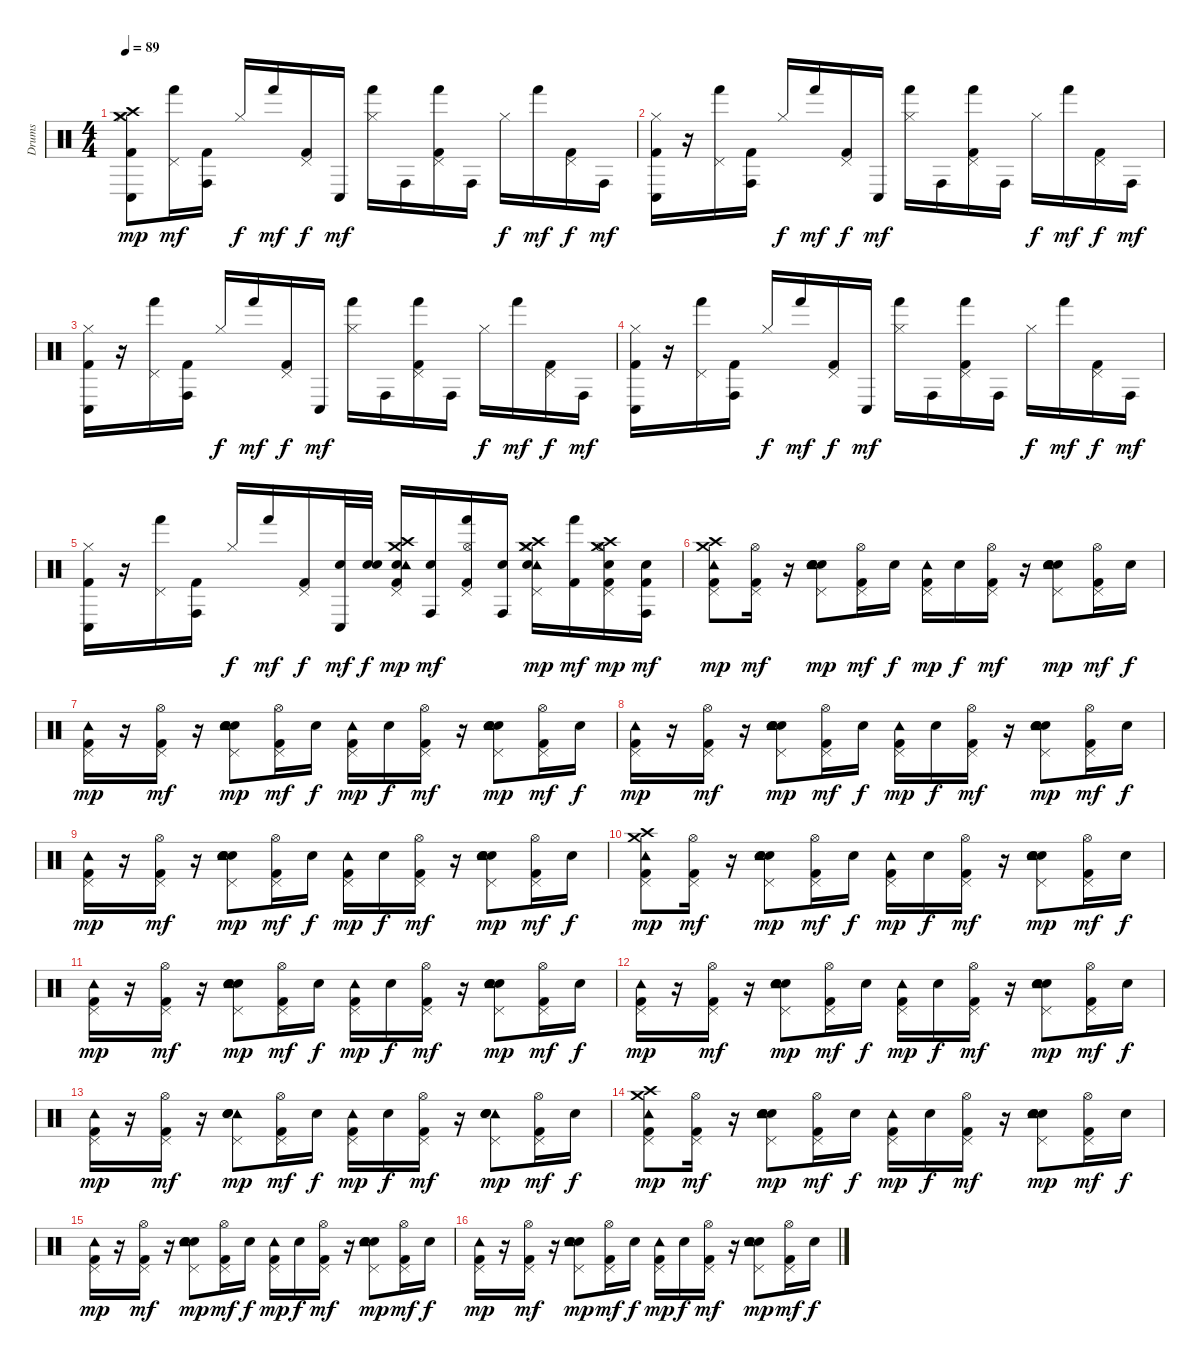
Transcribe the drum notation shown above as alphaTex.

\track ("Drums" "Drums") {instrument percussion}
\staff {score}
\articulation defaults
\ts (4 4)
\tempo 89
\clef neutral
\ks c
("Hi-Hat (closed)" "Conga low (hit)" "Kick (hit) 2" "Crash high (hit)" "Crash medium (hit)").8{dy mp} ("Hand (hit)" "Pedal Hi-Hat (hit)").16{dy mf} ("Conga high (hit)" "Kick (hit) 2").16 "Hi-Hat (closed)".16{dy f} "Hand (hit)".16{dy mf} ("Pedal Hi-Hat (hit)" "Kick (hit) 2").16{dy f} "Conga low (hit)".16{dy mf} ("Hi-Hat (closed)" "Hand (hit)").16 "Conga high (hit)".16 ("Kick (hit) 2" "Hand (hit)" "Pedal Hi-Hat (hit)").16 "Conga high (hit)".16 "Hi-Hat (closed)".16{dy f} "Hand (hit)".16{dy mf} ("Pedal Hi-Hat (hit)" "Kick (hit) 2").16{dy f} "Conga high (hit)".16{dy mf} |
("Hi-Hat (closed)" "Conga low (hit)" "Kick (hit) 2").16 r.16 ("Hand (hit)" "Pedal Hi-Hat (hit)").16 ("Conga high (hit)" "Kick (hit) 2").16 "Hi-Hat (closed)".16{dy f} "Hand (hit)".16{dy mf} ("Pedal Hi-Hat (hit)" "Kick (hit) 2").16{dy f} "Conga low (hit)".16{dy mf} ("Hi-Hat (closed)" "Hand (hit)").16 "Conga high (hit)".16 ("Kick (hit) 2" "Hand (hit)" "Pedal Hi-Hat (hit)").16 "Conga high (hit)".16 "Hi-Hat (closed)".16{dy f} "Hand (hit)".16{dy mf} ("Pedal Hi-Hat (hit)" "Kick (hit) 2").16{dy f} "Conga high (hit)".16{dy mf} |
("Hi-Hat (closed)" "Conga low (hit)" "Kick (hit) 2").16 r.16 ("Hand (hit)" "Pedal Hi-Hat (hit)").16 ("Conga high (hit)" "Kick (hit) 2").16 "Hi-Hat (closed)".16{dy f} "Hand (hit)".16{dy mf} ("Pedal Hi-Hat (hit)" "Kick (hit) 2").16{dy f} "Conga low (hit)".16{dy mf} ("Hi-Hat (closed)" "Hand (hit)").16 "Conga high (hit)".16 ("Kick (hit) 2" "Hand (hit)" "Pedal Hi-Hat (hit)").16 "Conga high (hit)".16 "Hi-Hat (closed)".16{dy f} "Hand (hit)".16{dy mf} ("Pedal Hi-Hat (hit)" "Kick (hit) 2").16{dy f} "Conga high (hit)".16{dy mf} |
("Hi-Hat (closed)" "Conga low (hit)" "Kick (hit) 2").16 r.16 ("Hand (hit)" "Pedal Hi-Hat (hit)").16 ("Conga high (hit)" "Kick (hit) 2").16 "Hi-Hat (closed)".16{dy f} "Hand (hit)".16{dy mf} ("Pedal Hi-Hat (hit)" "Kick (hit) 2").16{dy f} "Conga low (hit)".16{dy mf} ("Hi-Hat (closed)" "Hand (hit)").16 "Conga high (hit)".16 ("Kick (hit) 2" "Hand (hit)" "Pedal Hi-Hat (hit)").16 "Conga high (hit)".16 "Hi-Hat (closed)".16{dy f} "Hand (hit)".16{dy mf} ("Pedal Hi-Hat (hit)" "Kick (hit) 2").16{dy f} "Conga high (hit)".16{dy mf} |
("Hi-Hat (closed)" "Conga low (hit)" "Kick (hit) 2").16 r.16 ("Hand (hit)" "Pedal Hi-Hat (hit)").16 ("Conga high (hit)" "Kick (hit) 2").16 "Hi-Hat (closed)".16{dy f} "Hand (hit)".16{dy mf} ("Pedal Hi-Hat (hit)" "Kick (hit) 2").16{dy f} ("Electric Snare (hit)" "Conga low (hit)").32{dy mf} ("Electric Snare (hit)" "Electric Snare (hit)").32{dy f} ("Kick (hit) 2" "Crash high (hit)" "Crash medium (hit)" "Electric Snare (hit)" "Tambourine (hit)" "Pedal Hi-Hat (hit)").16{dy mp} ("Electric Snare (hit)" "Conga high (hit)").16{dy mf} ("Kick (hit) 2" "Hi-Hat (open)" "Pedal Hi-Hat (hit)" "Hand (hit)").16 ("Electric Snare (hit)" "Conga high (hit)").16 ("Crash high (hit)" "Crash medium (hit)" "Tambourine (hit)" "Pedal Hi-Hat (hit)" "Electric Snare (hit)" "Hi-Hat (closed)").16{dy mp} ("Kick (hit) 2" "Hand (hit)").16{dy mf} ("Kick (hit) 2" "Hi-Hat (open)" "Pedal Hi-Hat (hit)" "Crash high (hit)" "Crash medium (hit)" "Electric Snare (hit)").16{dy mp} ("Kick (hit) 2" "Electric Snare (hit)" "Conga high (hit)").16{dy mf} |
("Kick (hit) 2" "Tambourine (hit)" "Crash high (hit)" "Crash medium (hit)" "Pedal Hi-Hat (hit)").8{dy mp} ("Kick (hit) 2" "Hi-Hat (open)" "Pedal Hi-Hat (hit)").16{dy mf} r.16 ("Electric Snare (hit)" "Snare (hit) 2" "Hand Clap (hit)" "Tambourine (hit)" "Pedal Hi-Hat (hit)").8{dy mp} ("Kick (hit) 2" "Hi-Hat (open)" "Pedal Hi-Hat (hit)").16{dy mf} "Snare (hit) 2".16{dy f} ("Kick (hit) 2" "Tambourine (hit)" "Pedal Hi-Hat (hit)").16{dy mp} "Snare (hit) 2".16{dy f} ("Kick (hit) 2" "Hi-Hat (open)" "Pedal Hi-Hat (hit)").16{dy mf} r.16 ("Electric Snare (hit)" "Snare (hit) 2" "Hand Clap (hit)" "Tambourine (hit)" "Pedal Hi-Hat (hit)").8{dy mp} ("Kick (hit) 2" "Hi-Hat (open)" "Pedal Hi-Hat (hit)").16{dy mf} "Snare (hit) 2".16{dy f} |
("Kick (hit) 2" "Tambourine (hit)" "Pedal Hi-Hat (hit)").16{dy mp} r.16 ("Kick (hit) 2" "Hi-Hat (open)" "Pedal Hi-Hat (hit)").16{dy mf} r.16 ("Electric Snare (hit)" "Hand Clap (hit)" "Snare (hit) 2" "Tambourine (hit)" "Pedal Hi-Hat (hit)").8{dy mp} ("Kick (hit) 2" "Hi-Hat (open)" "Pedal Hi-Hat (hit)").16{dy mf} "Snare (hit) 2".16{dy f} ("Kick (hit) 2" "Tambourine (hit)" "Pedal Hi-Hat (hit)").16{dy mp} "Snare (hit) 2".16{dy f} ("Kick (hit) 2" "Hi-Hat (open)" "Pedal Hi-Hat (hit)").16{dy mf} r.16 ("Electric Snare (hit)" "Hand Clap (hit)" "Snare (hit) 2" "Tambourine (hit)" "Pedal Hi-Hat (hit)").8{dy mp} ("Kick (hit) 2" "Hi-Hat (open)" "Pedal Hi-Hat (hit)").16{dy mf} "Snare (hit) 2".16{dy f} |
("Kick (hit) 2" "Tambourine (hit)" "Pedal Hi-Hat (hit)").16{dy mp} r.16 ("Kick (hit) 2" "Hi-Hat (open)" "Pedal Hi-Hat (hit)").16{dy mf} r.16 ("Electric Snare (hit)" "Hand Clap (hit)" "Snare (hit) 2" "Tambourine (hit)" "Pedal Hi-Hat (hit)").8{dy mp} ("Kick (hit) 2" "Hi-Hat (open)" "Pedal Hi-Hat (hit)").16{dy mf} "Snare (hit) 2".16{dy f} ("Kick (hit) 2" "Tambourine (hit)" "Pedal Hi-Hat (hit)").16{dy mp} "Snare (hit) 2".16{dy f} ("Kick (hit) 2" "Hi-Hat (open)" "Pedal Hi-Hat (hit)").16{dy mf} r.16 ("Electric Snare (hit)" "Hand Clap (hit)" "Snare (hit) 2" "Tambourine (hit)" "Pedal Hi-Hat (hit)").8{dy mp} ("Kick (hit) 2" "Hi-Hat (open)" "Pedal Hi-Hat (hit)").16{dy mf} "Snare (hit) 2".16{dy f} |
("Kick (hit) 2" "Tambourine (hit)" "Pedal Hi-Hat (hit)").16{dy mp} r.16 ("Kick (hit) 2" "Hi-Hat (open)" "Pedal Hi-Hat (hit)").16{dy mf} r.16 ("Electric Snare (hit)" "Hand Clap (hit)" "Snare (hit) 2" "Tambourine (hit)" "Pedal Hi-Hat (hit)").8{dy mp} ("Kick (hit) 2" "Hi-Hat (open)" "Pedal Hi-Hat (hit)").16{dy mf} "Snare (hit) 2".16{dy f} ("Kick (hit) 2" "Tambourine (hit)" "Pedal Hi-Hat (hit)").16{dy mp} "Snare (hit) 2".16{dy f} ("Kick (hit) 2" "Hi-Hat (open)" "Pedal Hi-Hat (hit)").16{dy mf} r.16 ("Electric Snare (hit)" "Hand Clap (hit)" "Snare (hit) 2" "Tambourine (hit)" "Pedal Hi-Hat (hit)").8{dy mp} ("Kick (hit) 2" "Hi-Hat (open)" "Pedal Hi-Hat (hit)").16{dy mf} "Snare (hit) 2".16{dy f} |
("Kick (hit) 2" "Tambourine (hit)" "Crash high (hit)" "Crash medium (hit)" "Pedal Hi-Hat (hit)").8{dy mp} ("Kick (hit) 2" "Hi-Hat (open)" "Pedal Hi-Hat (hit)").16{dy mf} r.16 ("Electric Snare (hit)" "Snare (hit) 2" "Hand Clap (hit)" "Tambourine (hit)" "Pedal Hi-Hat (hit)").8{dy mp} ("Kick (hit) 2" "Hi-Hat (open)" "Pedal Hi-Hat (hit)").16{dy mf} "Snare (hit) 2".16{dy f} ("Kick (hit) 2" "Tambourine (hit)" "Pedal Hi-Hat (hit)").16{dy mp} "Snare (hit) 2".16{dy f} ("Kick (hit) 2" "Hi-Hat (open)" "Pedal Hi-Hat (hit)").16{dy mf} r.16 ("Electric Snare (hit)" "Snare (hit) 2" "Hand Clap (hit)" "Tambourine (hit)" "Pedal Hi-Hat (hit)").8{dy mp} ("Kick (hit) 2" "Hi-Hat (open)" "Pedal Hi-Hat (hit)").16{dy mf} "Snare (hit) 2".16{dy f} |
("Kick (hit) 2" "Tambourine (hit)" "Pedal Hi-Hat (hit)").16{dy mp} r.16 ("Kick (hit) 2" "Hi-Hat (open)" "Pedal Hi-Hat (hit)").16{dy mf} r.16 ("Electric Snare (hit)" "Hand Clap (hit)" "Snare (hit) 2" "Tambourine (hit)" "Pedal Hi-Hat (hit)").8{dy mp} ("Kick (hit) 2" "Hi-Hat (open)" "Pedal Hi-Hat (hit)").16{dy mf} "Snare (hit) 2".16{dy f} ("Kick (hit) 2" "Tambourine (hit)" "Pedal Hi-Hat (hit)").16{dy mp} "Snare (hit) 2".16{dy f} ("Kick (hit) 2" "Hi-Hat (open)" "Pedal Hi-Hat (hit)").16{dy mf} r.16 ("Electric Snare (hit)" "Hand Clap (hit)" "Snare (hit) 2" "Tambourine (hit)" "Pedal Hi-Hat (hit)").8{dy mp} ("Kick (hit) 2" "Hi-Hat (open)" "Pedal Hi-Hat (hit)").16{dy mf} "Snare (hit) 2".16{dy f} |
("Kick (hit) 2" "Tambourine (hit)" "Pedal Hi-Hat (hit)").16{dy mp} r.16 ("Kick (hit) 2" "Hi-Hat (open)" "Pedal Hi-Hat (hit)").16{dy mf} r.16 ("Electric Snare (hit)" "Hand Clap (hit)" "Snare (hit) 2" "Tambourine (hit)" "Pedal Hi-Hat (hit)").8{dy mp} ("Kick (hit) 2" "Hi-Hat (open)" "Pedal Hi-Hat (hit)").16{dy mf} "Snare (hit) 2".16{dy f} ("Kick (hit) 2" "Tambourine (hit)" "Pedal Hi-Hat (hit)").16{dy mp} "Snare (hit) 2".16{dy f} ("Kick (hit) 2" "Hi-Hat (open)" "Pedal Hi-Hat (hit)").16{dy mf} r.16 ("Electric Snare (hit)" "Hand Clap (hit)" "Snare (hit) 2" "Tambourine (hit)" "Pedal Hi-Hat (hit)").8{dy mp} ("Kick (hit) 2" "Hi-Hat (open)" "Pedal Hi-Hat (hit)").16{dy mf} "Snare (hit) 2".16{dy f} |
("Tambourine (hit)" "Pedal Hi-Hat (hit)" "Kick (hit) 2").16{dy mp} r.16 ("Hi-Hat (open)" "Pedal Hi-Hat (hit)" "Kick (hit) 2").16{dy mf} r.16 ("Tambourine (hit)" "Pedal Hi-Hat (hit)" "Electric Snare (hit)" "Hand Clap (hit)" "Snare (hit) 2").8{dy mp} ("Hi-Hat (open)" "Pedal Hi-Hat (hit)" "Kick (hit) 2").16{dy mf} "Snare (hit) 2".16{dy f} ("Tambourine (hit)" "Pedal Hi-Hat (hit)" "Kick (hit) 2").16{dy mp} "Snare (hit) 2".16{dy f} ("Hi-Hat (open)" "Pedal Hi-Hat (hit)" "Kick (hit) 2").16{dy mf} r.16 ("Tambourine (hit)" "Pedal Hi-Hat (hit)" "Electric Snare (hit)" "Hand Clap (hit)" "Snare (hit) 2").8{dy mp} ("Hi-Hat (open)" "Pedal Hi-Hat (hit)" "Kick (hit) 2").16{dy mf} "Snare (hit) 2".16{dy f} |
("Kick (hit) 2" "Tambourine (hit)" "Crash high (hit)" "Crash medium (hit)" "Pedal Hi-Hat (hit)").8{dy mp} ("Kick (hit) 2" "Hi-Hat (open)" "Pedal Hi-Hat (hit)").16{dy mf} r.16 ("Electric Snare (hit)" "Snare (hit) 2" "Hand Clap (hit)" "Tambourine (hit)" "Pedal Hi-Hat (hit)").8{dy mp} ("Kick (hit) 2" "Hi-Hat (open)" "Pedal Hi-Hat (hit)").16{dy mf} "Snare (hit) 2".16{dy f} ("Kick (hit) 2" "Tambourine (hit)" "Pedal Hi-Hat (hit)").16{dy mp} "Snare (hit) 2".16{dy f} ("Kick (hit) 2" "Hi-Hat (open)" "Pedal Hi-Hat (hit)").16{dy mf} r.16 ("Electric Snare (hit)" "Snare (hit) 2" "Hand Clap (hit)" "Tambourine (hit)" "Pedal Hi-Hat (hit)").8{dy mp} ("Kick (hit) 2" "Hi-Hat (open)" "Pedal Hi-Hat (hit)").16{dy mf} "Snare (hit) 2".16{dy f} |
("Kick (hit) 2" "Tambourine (hit)" "Pedal Hi-Hat (hit)").16{dy mp} r.16 ("Kick (hit) 2" "Hi-Hat (open)" "Pedal Hi-Hat (hit)").16{dy mf} r.16 ("Electric Snare (hit)" "Hand Clap (hit)" "Snare (hit) 2" "Tambourine (hit)" "Pedal Hi-Hat (hit)").8{dy mp} ("Kick (hit) 2" "Hi-Hat (open)" "Pedal Hi-Hat (hit)").16{dy mf} "Snare (hit) 2".16{dy f} ("Kick (hit) 2" "Tambourine (hit)" "Pedal Hi-Hat (hit)").16{dy mp} "Snare (hit) 2".16{dy f} ("Kick (hit) 2" "Hi-Hat (open)" "Pedal Hi-Hat (hit)").16{dy mf} r.16 ("Electric Snare (hit)" "Hand Clap (hit)" "Snare (hit) 2" "Tambourine (hit)" "Pedal Hi-Hat (hit)").8{dy mp} ("Kick (hit) 2" "Hi-Hat (open)" "Pedal Hi-Hat (hit)").16{dy mf} "Snare (hit) 2".16{dy f} |
("Kick (hit) 2" "Tambourine (hit)" "Pedal Hi-Hat (hit)").16{dy mp} r.16 ("Kick (hit) 2" "Hi-Hat (open)" "Pedal Hi-Hat (hit)").16{dy mf} r.16 ("Electric Snare (hit)" "Hand Clap (hit)" "Snare (hit) 2" "Tambourine (hit)" "Pedal Hi-Hat (hit)").8{dy mp} ("Kick (hit) 2" "Hi-Hat (open)" "Pedal Hi-Hat (hit)").16{dy mf} "Snare (hit) 2".16{dy f} ("Kick (hit) 2" "Tambourine (hit)" "Pedal Hi-Hat (hit)").16{dy mp} "Snare (hit) 2".16{dy f} ("Kick (hit) 2" "Hi-Hat (open)" "Pedal Hi-Hat (hit)").16{dy mf} r.16 ("Electric Snare (hit)" "Hand Clap (hit)" "Snare (hit) 2" "Tambourine (hit)" "Pedal Hi-Hat (hit)").8{dy mp} ("Kick (hit) 2" "Hi-Hat (open)" "Pedal Hi-Hat (hit)").16{dy mf} "Snare (hit) 2".16{dy f}
